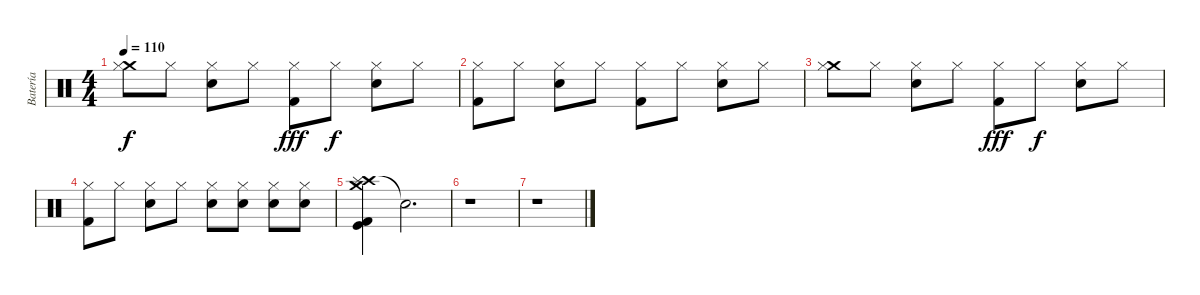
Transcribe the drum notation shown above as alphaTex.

\track ("Batería" "Batería") {instrument percussion}
\staff {score}
\articulation defaults
\ts (4 4)
\tempo 110
\clef neutral
\ks c
("Crash medium (hit)" "Hi-Hat (closed)").8{dy f} "Hi-Hat (closed)".8 ("Hi-Hat (closed)" "Snare (hit) 2").8 "Hi-Hat (closed)".8 ("Hi-Hat (closed)" "Kick (hit) 2").8{dy fff} "Hi-Hat (closed)".8{dy f} ("Hi-Hat (closed)" "Snare (hit) 2").8 "Hi-Hat (closed)".8 |
("Hi-Hat (closed)" "Kick (hit) 2").8 "Hi-Hat (closed)".8 ("Hi-Hat (closed)" "Snare (hit) 2").8 "Hi-Hat (closed)".8 ("Hi-Hat (closed)" "Kick (hit) 2").8 "Hi-Hat (closed)".8 ("Hi-Hat (closed)" "Snare (hit) 2").8 "Hi-Hat (closed)".8 |
("Crash medium (hit)" "Hi-Hat (closed)").8 "Hi-Hat (closed)".8 ("Hi-Hat (closed)" "Snare (hit) 2").8 "Hi-Hat (closed)".8 ("Hi-Hat (closed)" "Kick (hit) 2").8{dy fff} "Hi-Hat (closed)".8{dy f} ("Hi-Hat (closed)" "Snare (hit) 2").8 "Hi-Hat (closed)".8 |
("Hi-Hat (closed)" "Kick (hit) 2").8 "Hi-Hat (closed)".8 ("Hi-Hat (closed)" "Snare (hit) 2").8 "Hi-Hat (closed)".8 ("Hi-Hat (closed)" "Snare (hit) 2").8 ("Hi-Hat (closed)" "Snare (hit) 2").8 ("Hi-Hat (closed)" "Snare (hit) 2").8 ("Hi-Hat (closed)" "Snare (hit) 2").8 |
("Crash high (hit)" "Crash medium (hit)" "Kick (hit)" "Kick (hit) 2" "Splash (hit)").4 "Snare (hit)"{t}.2{d} |
r.1 |
r.1
